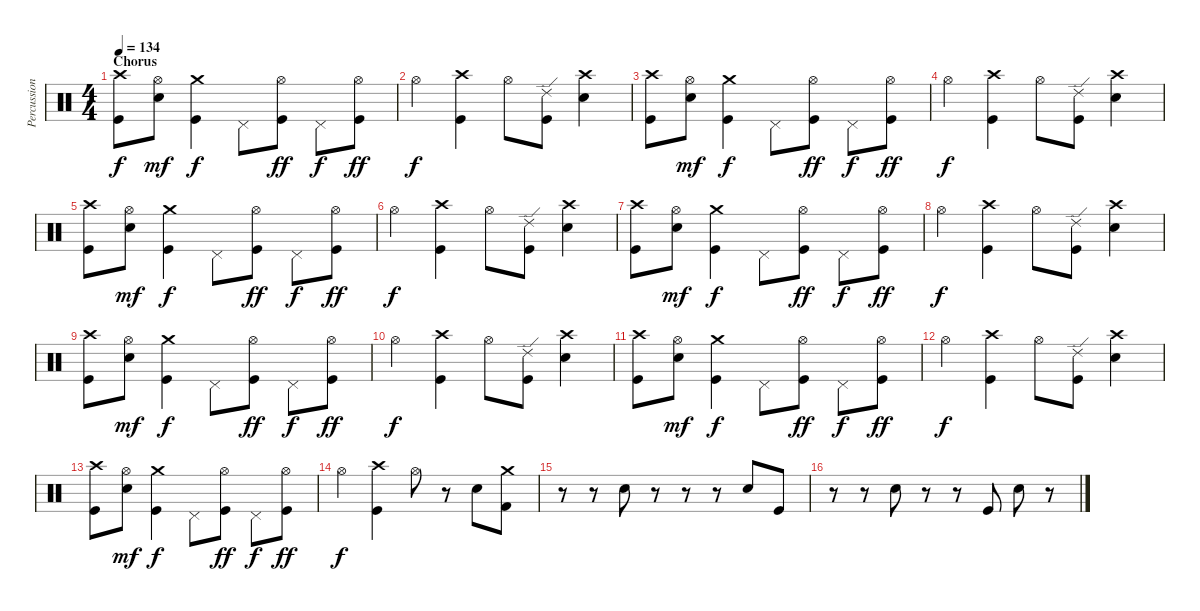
\track ("Percussion" "Percussion") {instrument percussion}
\staff {score}
\articulation defaults
\ts (4 4)
\section ("" "Chorus")
\tempo 134
\clef neutral
\ks c
("Crash high (hit)" "Kick (hit)").8{dy f} ("Hi-Hat (open)" "Electric Snare (hit)").8{dy mf} ("Crash medium (hit)" "Kick (hit)").4{dy f} "Pedal Hi-Hat (hit)".8 ("Hi-Hat (open)" "Kick (hit)").8{dy ff} "Pedal Hi-Hat (hit)".8{dy f} ("Hi-Hat (open)" "Kick (hit)").8{dy ff} |
"Hi-Hat (open)".4{dy f} ("Crash high (hit)" "Kick (hit)").4 "Hi-Hat (open)".8 ("Ride (edge) 2" "Kick (hit)").8 ("Crash high (hit)" "Electric Snare (hit)").4 |
("Crash high (hit)" "Kick (hit)").8 ("Hi-Hat (open)" "Electric Snare (hit)").8{dy mf} ("Crash medium (hit)" "Kick (hit)").4{dy f} "Pedal Hi-Hat (hit)".8 ("Hi-Hat (open)" "Kick (hit)").8{dy ff} "Pedal Hi-Hat (hit)".8{dy f} ("Hi-Hat (open)" "Kick (hit)").8{dy ff} |
"Hi-Hat (open)".4{dy f} ("Crash high (hit)" "Kick (hit)").4 "Hi-Hat (open)".8 ("Ride (edge) 2" "Kick (hit)").8 ("Crash high (hit)" "Electric Snare (hit)").4 |
("Crash high (hit)" "Kick (hit)").8 ("Hi-Hat (open)" "Electric Snare (hit)").8{dy mf} ("Crash medium (hit)" "Kick (hit)").4{dy f} "Pedal Hi-Hat (hit)".8 ("Hi-Hat (open)" "Kick (hit)").8{dy ff} "Pedal Hi-Hat (hit)".8{dy f} ("Hi-Hat (open)" "Kick (hit)").8{dy ff} |
"Hi-Hat (open)".4{dy f} ("Crash high (hit)" "Kick (hit)").4 "Hi-Hat (open)".8 ("Ride (edge) 2" "Kick (hit)").8 ("Crash high (hit)" "Electric Snare (hit)").4 |
("Crash high (hit)" "Kick (hit)").8 ("Hi-Hat (open)" "Electric Snare (hit)").8{dy mf} ("Crash medium (hit)" "Kick (hit)").4{dy f} "Pedal Hi-Hat (hit)".8 ("Hi-Hat (open)" "Kick (hit)").8{dy ff} "Pedal Hi-Hat (hit)".8{dy f} ("Hi-Hat (open)" "Kick (hit)").8{dy ff} |
"Hi-Hat (open)".4{dy f} ("Crash high (hit)" "Kick (hit)").4 "Hi-Hat (open)".8 ("Ride (edge) 2" "Kick (hit)").8 ("Crash high (hit)" "Electric Snare (hit)").4 |
("Crash high (hit)" "Kick (hit)").8 ("Hi-Hat (open)" "Electric Snare (hit)").8{dy mf} ("Crash medium (hit)" "Kick (hit)").4{dy f} "Pedal Hi-Hat (hit)".8 ("Hi-Hat (open)" "Kick (hit)").8{dy ff} "Pedal Hi-Hat (hit)".8{dy f} ("Hi-Hat (open)" "Kick (hit)").8{dy ff} |
"Hi-Hat (open)".4{dy f} ("Crash high (hit)" "Kick (hit)").4 "Hi-Hat (open)".8 ("Ride (edge) 2" "Kick (hit)").8 ("Crash high (hit)" "Electric Snare (hit)").4 |
("Crash high (hit)" "Kick (hit)").8 ("Hi-Hat (open)" "Electric Snare (hit)").8{dy mf} ("Crash medium (hit)" "Kick (hit)").4{dy f} "Pedal Hi-Hat (hit)".8 ("Hi-Hat (open)" "Kick (hit)").8{dy ff} "Pedal Hi-Hat (hit)".8{dy f} ("Hi-Hat (open)" "Kick (hit)").8{dy ff} |
"Hi-Hat (open)".4{dy f} ("Crash high (hit)" "Kick (hit)").4 "Hi-Hat (open)".8 ("Ride (edge) 2" "Kick (hit)").8 ("Crash high (hit)" "Electric Snare (hit)").4 |
("Crash high (hit)" "Kick (hit)").8 ("Hi-Hat (open)" "Electric Snare (hit)").8{dy mf} ("Crash medium (hit)" "Kick (hit)").4{dy f} "Pedal Hi-Hat (hit)".8 ("Hi-Hat (open)" "Kick (hit)").8{dy ff} "Pedal Hi-Hat (hit)".8{dy f} ("Hi-Hat (open)" "Kick (hit)").8{dy ff} |
"Hi-Hat (open)".4{dy f} ("Crash high (hit)" "Kick (hit)").4 "Hi-Hat (open)".8 r.8 "Snare (hit) 2".8 ("Crash medium (hit)" "Kick (hit) 2").8 |
r.8 r.8 "Snare (hit) 2".8 r.8 r.8 r.8 "Snare (hit) 2".8 "Kick (hit)".8 |
r.8 r.8 "Snare (hit) 2".8 r.8 r.8 "Kick (hit)".8 "Snare (hit) 2".8 r.8
